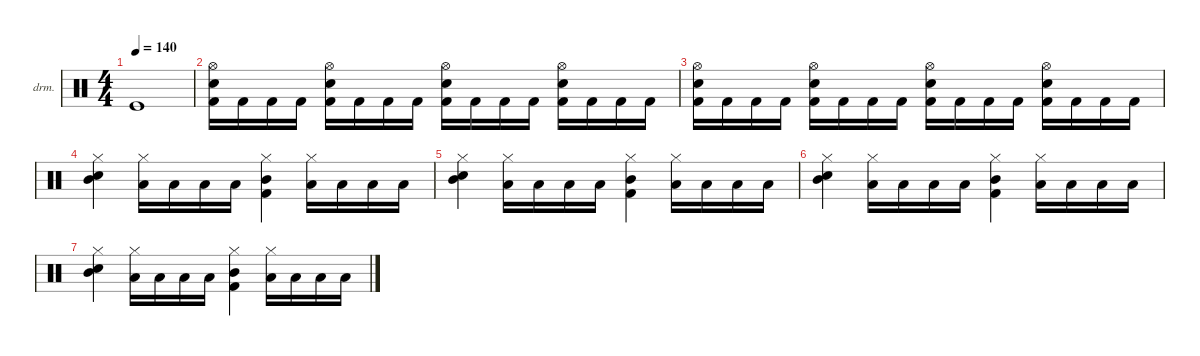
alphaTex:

\defaultSystemsLayout 4
\hideDynamics
\bracketExtendMode nobrackets
\firstSystemTrackNameOrientation horizontal
\otherSystemsTrackNameOrientation horizontal
\track ("Drumkit" "drm.") {instrument percussion}
\staff {score}
\articulation defaults
\ts (4 4)
\tempo 140
\clef neutral
\ks c "Kick (hit)".1{dy mf}
|
("Hi-Hat (open)" "Snare (hit) 2" "Kick (hit) 2").16 "Kick (hit) 2".16 "Kick (hit) 2".16 "Kick (hit) 2".16 ("Hi-Hat (open)" "Snare (hit) 2" "Kick (hit) 2").16 "Kick (hit) 2".16 "Kick (hit) 2".16 "Kick (hit) 2".16 ("Hi-Hat (open)" "Snare (hit) 2" "Kick (hit) 2").16 "Kick (hit) 2".16 "Kick (hit) 2".16 "Kick (hit) 2".16 ("Hi-Hat (open)" "Snare (hit) 2" "Kick (hit) 2").16 "Kick (hit) 2".16 "Kick (hit) 2".16 "Kick (hit) 2".16 |
("Hi-Hat (open)" "Snare (hit) 2" "Kick (hit) 2").16 "Kick (hit) 2".16 "Kick (hit) 2".16 "Kick (hit) 2".16 ("Hi-Hat (open)" "Snare (hit) 2" "Kick (hit) 2").16 "Kick (hit) 2".16 "Kick (hit) 2".16 "Kick (hit) 2".16 ("Hi-Hat (open)" "Snare (hit) 2" "Kick (hit) 2").16 "Kick (hit) 2".16 "Kick (hit) 2".16 "Kick (hit) 2".16 ("Hi-Hat (open)" "Snare (hit) 2" "Kick (hit) 2").16 "Kick (hit) 2".16 "Kick (hit) 2".16 "Kick (hit) 2".16 |
("Snare (hit) 2" "Mid Tom (hit)" "Hi-Hat (closed)").4{dy fff} ("Low Tom (hit)" "Hi-Hat (closed)").16 "Low Tom (hit)".16 "Low Tom (hit)".16 "Low Tom (hit)".16 ("Mid Tom (hit)" "Kick (hit) 2" "Hi-Hat (closed)").4 ("Low Tom (hit)" "Hi-Hat (closed)").16 "Low Tom (hit)".16 "Low Tom (hit)".16 "Low Tom (hit)".16 |
("Snare (hit) 2" "Mid Tom (hit)" "Hi-Hat (closed)").4 ("Low Tom (hit)" "Hi-Hat (closed)").16 "Low Tom (hit)".16 "Low Tom (hit)".16 "Low Tom (hit)".16 ("Mid Tom (hit)" "Kick (hit) 2" "Hi-Hat (closed)").4 ("Low Tom (hit)" "Hi-Hat (closed)").16 "Low Tom (hit)".16 "Low Tom (hit)".16 "Low Tom (hit)".16 |
("Snare (hit) 2" "Mid Tom (hit)" "Hi-Hat (closed)").4 ("Low Tom (hit)" "Hi-Hat (closed)").16 "Low Tom (hit)".16 "Low Tom (hit)".16 "Low Tom (hit)".16 ("Mid Tom (hit)" "Kick (hit) 2" "Hi-Hat (closed)").4 ("Low Tom (hit)" "Hi-Hat (closed)").16 "Low Tom (hit)".16 "Low Tom (hit)".16 "Low Tom (hit)".16 |
("Snare (hit) 2" "Mid Tom (hit)" "Hi-Hat (closed)").4 ("Low Tom (hit)" "Hi-Hat (closed)").16 "Low Tom (hit)".16 "Low Tom (hit)".16 "Low Tom (hit)".16 ("Mid Tom (hit)" "Kick (hit) 2" "Hi-Hat (closed)").4 ("Low Tom (hit)" "Hi-Hat (closed)").16 "Low Tom (hit)".16 "Low Tom (hit)".16 "Low Tom (hit)".16
